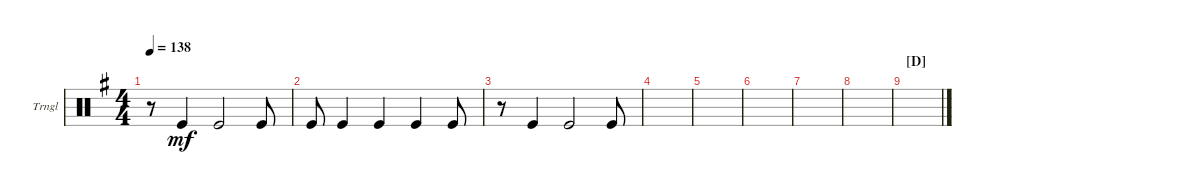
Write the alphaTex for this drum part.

\defaultSystemsLayout 4
\bracketExtendMode groupsimilarinstruments
\firstSystemTrackNameOrientation horizontal
\otherSystemsTrackNameOrientation horizontal
\track ("Triangle" "Trngl") {instrument percussion}
\staff {score}
\articulation defaults
\ts (4 4)
\tempo 138
\clef neutral
\ks g
r.8{dy mf} "Kick (hit)".4 "Kick (hit)".2 "Kick (hit)".8 |
"Kick (hit)".8 "Kick (hit)".4 "Kick (hit)".4 "Kick (hit)".4 "Kick (hit)".8 |
r.8 "Kick (hit)".4 "Kick (hit)".2 "Kick (hit)".8 |
|
|
|
|
|
\section ("D" "")
